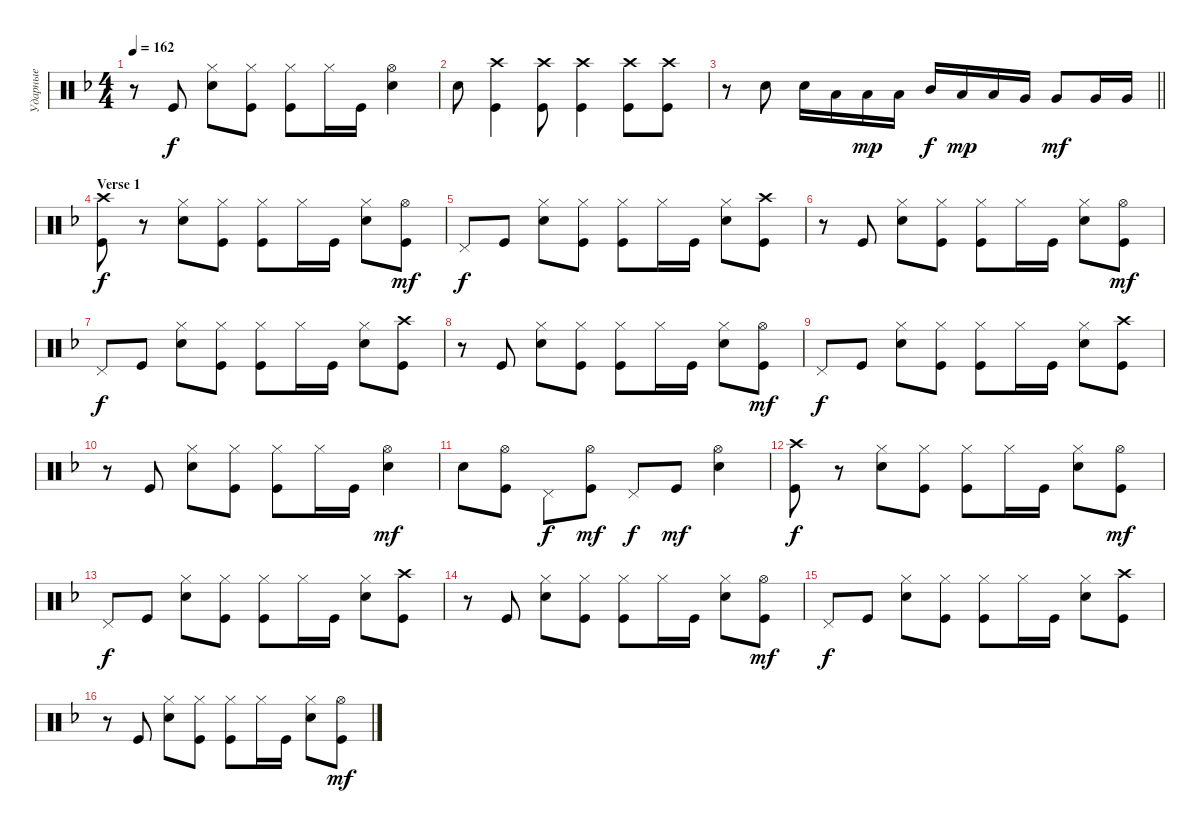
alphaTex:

\track ("Ударные" "Ударные") {instrument percussion}
\staff {score}
\articulation defaults
\ts (4 4)
\tempo 162
\clef neutral
\ks dminor
r.8{dy f} "Kick (hit)".8 ("Hi-Hat (closed)" "Snare (hit) 2").8 ("Hi-Hat (closed)" "Kick (hit)").8 ("Hi-Hat (closed)" "Kick (hit)").8 "Hi-Hat (closed)".16 "Kick (hit)".16 ("Hi-Hat (open)" "Snare (hit) 2").4 |
"Snare (hit) 2".8 ("Kick (hit)" "Crash high (hit)").4 ("Kick (hit)" "Crash high (hit)").8 ("Kick (hit)" "Crash high (hit)").4 ("Kick (hit)" "Crash high (hit)").8 ("Kick (hit)" "Crash high (hit)").8 |
\barLineRight lightlight
r.8 "Snare (hit) 2".8 "Snare (hit) 2".16 "Low Tom (hit)".16 "Low Tom (hit)".16{dy mp} "Low Tom (hit)".16 "Mid Tom (hit)".16{dy f} "Low Tom (hit)".16{dy mp} "Low Tom (hit)".16 "Very Low Tom (hit)".16 "Very Low Tom (hit)".8{dy mf} "Very Low Tom (hit)".16 "Very Low Tom (hit)".16 |
\section ("" "Verse 1")
("Kick (hit)" "Crash high (hit)").8{dy f} r.8 ("Hi-Hat (closed)" "Snare (hit) 2").8 ("Hi-Hat (closed)" "Kick (hit)").8 ("Hi-Hat (closed)" "Kick (hit)").8 "Hi-Hat (closed)".16 "Kick (hit)".16 ("Hi-Hat (closed)" "Snare (hit) 2").8 ("Hi-Hat (open)" "Kick (hit)").8{dy mf} |
"Pedal Hi-Hat (hit)".8{dy f} "Kick (hit)".8 ("Hi-Hat (closed)" "Snare (hit) 2").8 ("Hi-Hat (closed)" "Kick (hit)").8 ("Hi-Hat (closed)" "Kick (hit)").8 "Hi-Hat (closed)".16 "Kick (hit)".16 ("Hi-Hat (closed)" "Snare (hit) 2").8 ("Crash high (hit)" "Kick (hit)").8 |
r.8 "Kick (hit)".8 ("Hi-Hat (closed)" "Snare (hit) 2").8 ("Hi-Hat (closed)" "Kick (hit)").8 ("Hi-Hat (closed)" "Kick (hit)").8 "Hi-Hat (closed)".16 "Kick (hit)".16 ("Hi-Hat (closed)" "Snare (hit) 2").8 ("Hi-Hat (open)" "Kick (hit)").8{dy mf} |
"Pedal Hi-Hat (hit)".8{dy f} "Kick (hit)".8 ("Hi-Hat (closed)" "Snare (hit) 2").8 ("Hi-Hat (closed)" "Kick (hit)").8 ("Hi-Hat (closed)" "Kick (hit)").8 "Hi-Hat (closed)".16 "Kick (hit)".16 ("Hi-Hat (closed)" "Snare (hit) 2").8 ("Crash high (hit)" "Kick (hit)").8 |
r.8 "Kick (hit)".8 ("Hi-Hat (closed)" "Snare (hit) 2").8 ("Hi-Hat (closed)" "Kick (hit)").8 ("Hi-Hat (closed)" "Kick (hit)").8 "Hi-Hat (closed)".16 "Kick (hit)".16 ("Hi-Hat (closed)" "Snare (hit) 2").8 ("Hi-Hat (open)" "Kick (hit)").8{dy mf} |
"Pedal Hi-Hat (hit)".8{dy f} "Kick (hit)".8 ("Hi-Hat (closed)" "Snare (hit) 2").8 ("Hi-Hat (closed)" "Kick (hit)").8 ("Hi-Hat (closed)" "Kick (hit)").8 "Hi-Hat (closed)".16 "Kick (hit)".16 ("Hi-Hat (closed)" "Snare (hit) 2").8 ("Crash high (hit)" "Kick (hit)").8 |
r.8 "Kick (hit)".8 ("Hi-Hat (closed)" "Snare (hit) 2").8 ("Hi-Hat (closed)" "Kick (hit)").8 ("Hi-Hat (closed)" "Kick (hit)").8 "Hi-Hat (closed)".16 "Kick (hit)".16 ("Hi-Hat (open)" "Snare (hit) 2").4{dy mf} |
"Snare (hit) 2".8 ("Kick (hit)" "Hi-Hat (open)").8 "Pedal Hi-Hat (hit)".8{dy f} ("Hi-Hat (open)" "Kick (hit)").8{dy mf} "Pedal Hi-Hat (hit)".8{dy f} "Kick (hit)".8{dy mf} ("Snare (hit) 2" "Hi-Hat (open)").4 |
("Kick (hit)" "Crash high (hit)").8{dy f} r.8 ("Hi-Hat (closed)" "Snare (hit) 2").8 ("Hi-Hat (closed)" "Kick (hit)").8 ("Hi-Hat (closed)" "Kick (hit)").8 "Hi-Hat (closed)".16 "Kick (hit)".16 ("Hi-Hat (closed)" "Snare (hit) 2").8 ("Hi-Hat (open)" "Kick (hit)").8{dy mf} |
"Pedal Hi-Hat (hit)".8{dy f} "Kick (hit)".8 ("Hi-Hat (closed)" "Snare (hit) 2").8 ("Hi-Hat (closed)" "Kick (hit)").8 ("Hi-Hat (closed)" "Kick (hit)").8 "Hi-Hat (closed)".16 "Kick (hit)".16 ("Hi-Hat (closed)" "Snare (hit) 2").8 ("Crash high (hit)" "Kick (hit)").8 |
r.8 "Kick (hit)".8 ("Hi-Hat (closed)" "Snare (hit) 2").8 ("Hi-Hat (closed)" "Kick (hit)").8 ("Hi-Hat (closed)" "Kick (hit)").8 "Hi-Hat (closed)".16 "Kick (hit)".16 ("Hi-Hat (closed)" "Snare (hit) 2").8 ("Hi-Hat (open)" "Kick (hit)").8{dy mf} |
"Pedal Hi-Hat (hit)".8{dy f} "Kick (hit)".8 ("Hi-Hat (closed)" "Snare (hit) 2").8 ("Hi-Hat (closed)" "Kick (hit)").8 ("Hi-Hat (closed)" "Kick (hit)").8 "Hi-Hat (closed)".16 "Kick (hit)".16 ("Hi-Hat (closed)" "Snare (hit) 2").8 ("Crash high (hit)" "Kick (hit)").8 |
r.8 "Kick (hit)".8 ("Hi-Hat (closed)" "Snare (hit) 2").8 ("Hi-Hat (closed)" "Kick (hit)").8 ("Hi-Hat (closed)" "Kick (hit)").8 "Hi-Hat (closed)".16 "Kick (hit)".16 ("Hi-Hat (closed)" "Snare (hit) 2").8 ("Hi-Hat (open)" "Kick (hit)").8{dy mf}
